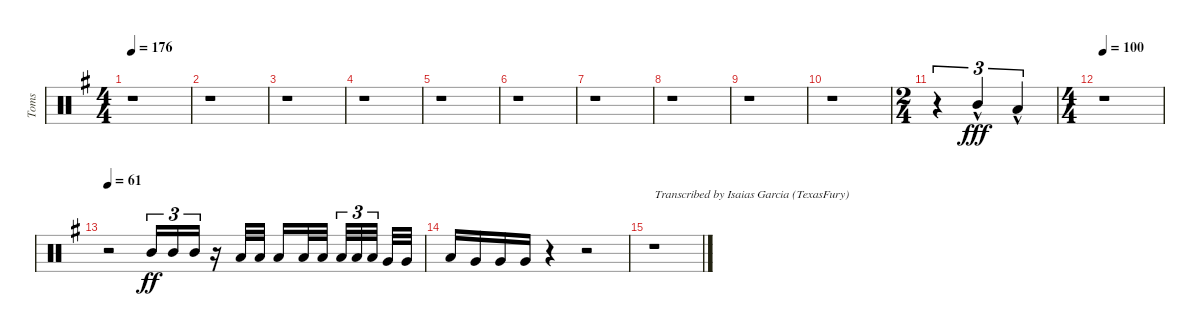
\track ("Toms" "Toms") {instrument percussion}
\staff {score}
\articulation defaults
\ts (4 4)
\tempo 176
\clef neutral
\ks eminor
r.1{dy ff} |
r.1 |
r.1 |
r.1 |
r.1 |
r.1 |
r.1 |
r.1 |
r.1 |
\ks g
r.1 |
\ts (2 4)
r.4{tu (3 2) balance 8 beam Up} "Mid Tom (hit)"{hac}.4{tu (3 2) dy fff beam Up} "Low Tom (hit)"{hac}.4{tu (3 2) balance 6 beam Up} |
\ts (4 4)
\tempo 100
r.1 |
\tempo 61
r.2{beam Up} "Mid Tom (hit)".16{tu (3 2) dy ff balance 8 beam Up} "Mid Tom (hit)".16{tu (3 2) beam Up} "Mid Tom (hit)".16{tu (3 2) beam Up} r.16 "Low Tom (hit)".32{balance 6 beam Up} "Low Tom (hit)".32{beam Up} "Low Tom (hit)".16{beam Up} "Low Tom (hit)".32{beam Up} "Low Tom (hit)".32{beam Up beam splitsecondary} "Low Tom (hit)".32{tu (3 2) beam Up} "Low Tom (hit)".32{tu (3 2) beam Up} "Low Tom (hit)".32{tu (3 2) beam Up beam splitsecondary} "Very Low Tom (hit)".32{balance 4 beam Up} "Very Low Tom (hit)".32{beam Up} |
"Low Tom (hit)".16{balance 6 beam Up} "Very Low Tom (hit)".16{balance 4 beam Up} "Very Low Tom (hit)".16{beam Up} "Very Low Tom (hit)".16{beam Up} r.4 r.2 |
r.1{txt "Transcribed by Isaias Garcia (TexasFury)"}
